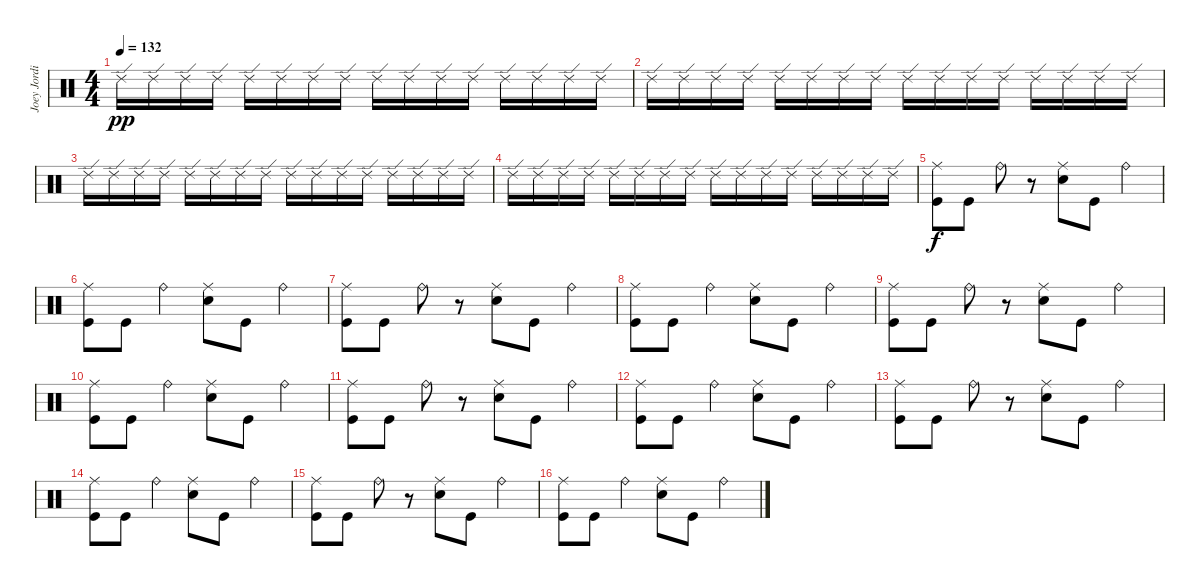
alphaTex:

\track ("Joey Jordison" "Joey Jordi") {instrument percussion}
\staff {score}
\articulation defaults
\ts (4 4)
\tempo 132
\clef neutral
\ks c "Ride (edge) 2".16{dy pp} "Ride (edge) 2".16 "Ride (edge) 2".16 "Ride (edge) 2".16 "Ride (edge) 2".16 "Ride (edge) 2".16 "Ride (edge) 2".16 "Ride (edge) 2".16 "Ride (edge) 2".16 "Ride (edge) 2".16 "Ride (edge) 2".16 "Ride (edge) 2".16 "Ride (edge) 2".16 "Ride (edge) 2".16 "Ride (edge) 2".16 "Ride (edge) 2".16
|
"Ride (edge) 2".16 "Ride (edge) 2".16 "Ride (edge) 2".16 "Ride (edge) 2".16 "Ride (edge) 2".16 "Ride (edge) 2".16 "Ride (edge) 2".16 "Ride (edge) 2".16 "Ride (edge) 2".16 "Ride (edge) 2".16 "Ride (edge) 2".16 "Ride (edge) 2".16 "Ride (edge) 2".16 "Ride (edge) 2".16 "Ride (edge) 2".16 "Ride (edge) 2".16 |
"Ride (edge) 2".16 "Ride (edge) 2".16 "Ride (edge) 2".16 "Ride (edge) 2".16 "Ride (edge) 2".16 "Ride (edge) 2".16 "Ride (edge) 2".16 "Ride (edge) 2".16 "Ride (edge) 2".16 "Ride (edge) 2".16 "Ride (edge) 2".16 "Ride (edge) 2".16 "Ride (edge) 2".16 "Ride (edge) 2".16 "Ride (edge) 2".16 "Ride (edge) 2".16 |
"Ride (edge) 2".16 "Ride (edge) 2".16 "Ride (edge) 2".16 "Ride (edge) 2".16 "Ride (edge) 2".16 "Ride (edge) 2".16 "Ride (edge) 2".16 "Ride (edge) 2".16 "Ride (edge) 2".16 "Ride (edge) 2".16 "Ride (edge) 2".16 "Ride (edge) 2".16 "Ride (edge) 2".16 "Ride (edge) 2".16 "Ride (edge) 2".16 "Ride (edge) 2".16 |
("Kick (hit)" "Ride (middle)").8{dy f} "Kick (hit)".8 "Ride (bell)".8 r.8 ("Snare (hit) 2" "Ride (middle)").8 "Kick (hit)".8 "Ride (bell)".4 |
("Kick (hit)" "Ride (middle)").8 "Kick (hit)".8 "Ride (bell)".4 ("Snare (hit) 2" "Ride (middle)").8 "Kick (hit)".8 "Ride (bell)".4 |
("Kick (hit)" "Ride (middle)").8 "Kick (hit)".8 "Ride (bell)".8 r.8 ("Snare (hit) 2" "Ride (middle)").8 "Kick (hit)".8 "Ride (bell)".4 |
("Kick (hit)" "Ride (middle)").8 "Kick (hit)".8 "Ride (bell)".4 ("Snare (hit) 2" "Ride (middle)").8 "Kick (hit)".8 "Ride (bell)".4 |
("Kick (hit)" "Ride (middle)").8 "Kick (hit)".8 "Ride (bell)".8 r.8 ("Snare (hit) 2" "Ride (middle)").8 "Kick (hit)".8 "Ride (bell)".4 |
("Kick (hit)" "Ride (middle)").8 "Kick (hit)".8 "Ride (bell)".4 ("Snare (hit) 2" "Ride (middle)").8 "Kick (hit)".8 "Ride (bell)".4 |
("Kick (hit)" "Ride (middle)").8 "Kick (hit)".8 "Ride (bell)".8 r.8 ("Snare (hit) 2" "Ride (middle)").8 "Kick (hit)".8 "Ride (bell)".4 |
("Kick (hit)" "Ride (middle)").8 "Kick (hit)".8 "Ride (bell)".4 ("Snare (hit) 2" "Ride (middle)").8 "Kick (hit)".8 "Ride (bell)".4 |
("Kick (hit)" "Ride (middle)").8 "Kick (hit)".8 "Ride (bell)".8 r.8 ("Snare (hit) 2" "Ride (middle)").8 "Kick (hit)".8 "Ride (bell)".4 |
("Kick (hit)" "Ride (middle)").8 "Kick (hit)".8 "Ride (bell)".4 ("Snare (hit) 2" "Ride (middle)").8 "Kick (hit)".8 "Ride (bell)".4 |
("Kick (hit)" "Ride (middle)").8 "Kick (hit)".8 "Ride (bell)".8 r.8 ("Snare (hit) 2" "Ride (middle)").8 "Kick (hit)".8 "Ride (bell)".4 |
("Kick (hit)" "Ride (middle)").8 "Kick (hit)".8 "Ride (bell)".4 ("Snare (hit) 2" "Ride (middle)").8 "Kick (hit)".8 "Ride (bell)".4
